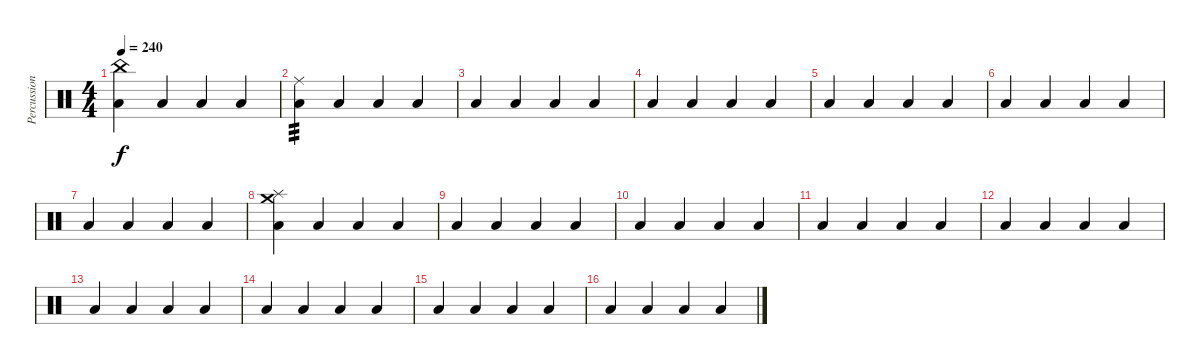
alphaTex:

\track ("Percussion" "Percussion") {instrument percussion}
\staff {score}
\articulation defaults
\ts (4 4)
\tempo 240
\clef neutral
\ks c
("China (hit)" "Low Tom (hit)").4{dy f} "Low Tom (hit)".4 "Low Tom (hit)".4 "Low Tom (hit)".4 |
("Ride (middle)" "Low Tom (hit)").4{tp 3} "Low Tom (hit)".4 "Low Tom (hit)".4 "Low Tom (hit)".4 |
"Low Tom (hit)".4 "Low Tom (hit)".4 "Low Tom (hit)".4 "Low Tom (hit)".4 |
"Low Tom (hit)".4 "Low Tom (hit)".4 "Low Tom (hit)".4 "Low Tom (hit)".4 |
"Low Tom (hit)".4 "Low Tom (hit)".4 "Low Tom (hit)".4 "Low Tom (hit)".4 |
"Low Tom (hit)".4 "Low Tom (hit)".4 "Low Tom (hit)".4 "Low Tom (hit)".4 |
"Low Tom (hit)".4 "Low Tom (hit)".4 "Low Tom (hit)".4 "Low Tom (hit)".4 |
("Crash medium (hit)" "Splash (hit)" "Low Tom (hit)").4 "Low Tom (hit)".4 "Low Tom (hit)".4 "Low Tom (hit)".4 |
"Low Tom (hit)".4 "Low Tom (hit)".4 "Low Tom (hit)".4 "Low Tom (hit)".4 |
"Low Tom (hit)".4 "Low Tom (hit)".4 "Low Tom (hit)".4 "Low Tom (hit)".4 |
"Low Tom (hit)".4 "Low Tom (hit)".4 "Low Tom (hit)".4 "Low Tom (hit)".4 |
"Low Tom (hit)".4 "Low Tom (hit)".4 "Low Tom (hit)".4 "Low Tom (hit)".4 |
"Low Tom (hit)".4 "Low Tom (hit)".4 "Low Tom (hit)".4 "Low Tom (hit)".4 |
"Low Tom (hit)".4 "Low Tom (hit)".4 "Low Tom (hit)".4 "Low Tom (hit)".4 |
"Low Tom (hit)".4 "Low Tom (hit)".4 "Low Tom (hit)".4 "Low Tom (hit)".4 |
"Low Tom (hit)".4 "Low Tom (hit)".4 "Low Tom (hit)".4 "Low Tom (hit)".4
